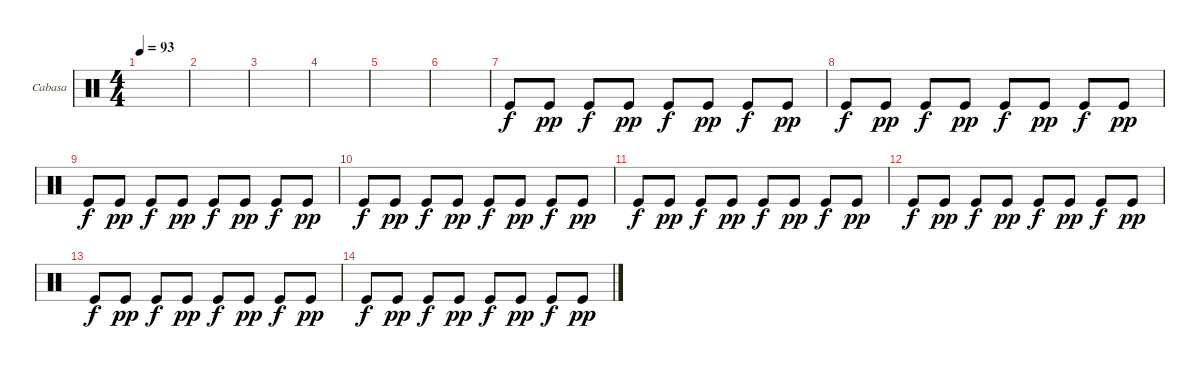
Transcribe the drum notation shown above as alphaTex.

\defaultSystemsLayout 4
\bracketExtendMode groupsimilarinstruments
\firstSystemTrackNameOrientation horizontal
\otherSystemsTrackNameOrientation horizontal
\track ("Cabasa" "Cabasa") {instrument percussion}
\staff {score}
\articulation defaults
\ts (4 4)
\tempo 93
\clef neutral
\ks c
|
|
|
|
|
|
"Kick (hit)".8{dy f} "Kick (hit)".8{dy pp} "Kick (hit)".8{dy f} "Kick (hit)".8{dy pp} "Kick (hit)".8{dy f} "Kick (hit)".8{dy pp} "Kick (hit)".8{dy f} "Kick (hit)".8{dy pp} |
"Kick (hit)".8{dy f} "Kick (hit)".8{dy pp} "Kick (hit)".8{dy f} "Kick (hit)".8{dy pp} "Kick (hit)".8{dy f} "Kick (hit)".8{dy pp} "Kick (hit)".8{dy f} "Kick (hit)".8{dy pp} |
"Kick (hit)".8{dy f} "Kick (hit)".8{dy pp} "Kick (hit)".8{dy f} "Kick (hit)".8{dy pp} "Kick (hit)".8{dy f} "Kick (hit)".8{dy pp} "Kick (hit)".8{dy f} "Kick (hit)".8{dy pp} |
"Kick (hit)".8{dy f} "Kick (hit)".8{dy pp} "Kick (hit)".8{dy f} "Kick (hit)".8{dy pp} "Kick (hit)".8{dy f} "Kick (hit)".8{dy pp} "Kick (hit)".8{dy f} "Kick (hit)".8{dy pp} |
"Kick (hit)".8{dy f} "Kick (hit)".8{dy pp} "Kick (hit)".8{dy f} "Kick (hit)".8{dy pp} "Kick (hit)".8{dy f} "Kick (hit)".8{dy pp} "Kick (hit)".8{dy f} "Kick (hit)".8{dy pp} |
"Kick (hit)".8{dy f} "Kick (hit)".8{dy pp} "Kick (hit)".8{dy f} "Kick (hit)".8{dy pp} "Kick (hit)".8{dy f} "Kick (hit)".8{dy pp} "Kick (hit)".8{dy f} "Kick (hit)".8{dy pp} |
"Kick (hit)".8{dy f} "Kick (hit)".8{dy pp} "Kick (hit)".8{dy f} "Kick (hit)".8{dy pp} "Kick (hit)".8{dy f} "Kick (hit)".8{dy pp} "Kick (hit)".8{dy f} "Kick (hit)".8{dy pp} |
"Kick (hit)".8{dy f} "Kick (hit)".8{dy pp} "Kick (hit)".8{dy f} "Kick (hit)".8{dy pp} "Kick (hit)".8{dy f} "Kick (hit)".8{dy pp} "Kick (hit)".8{dy f} "Kick (hit)".8{dy pp}
